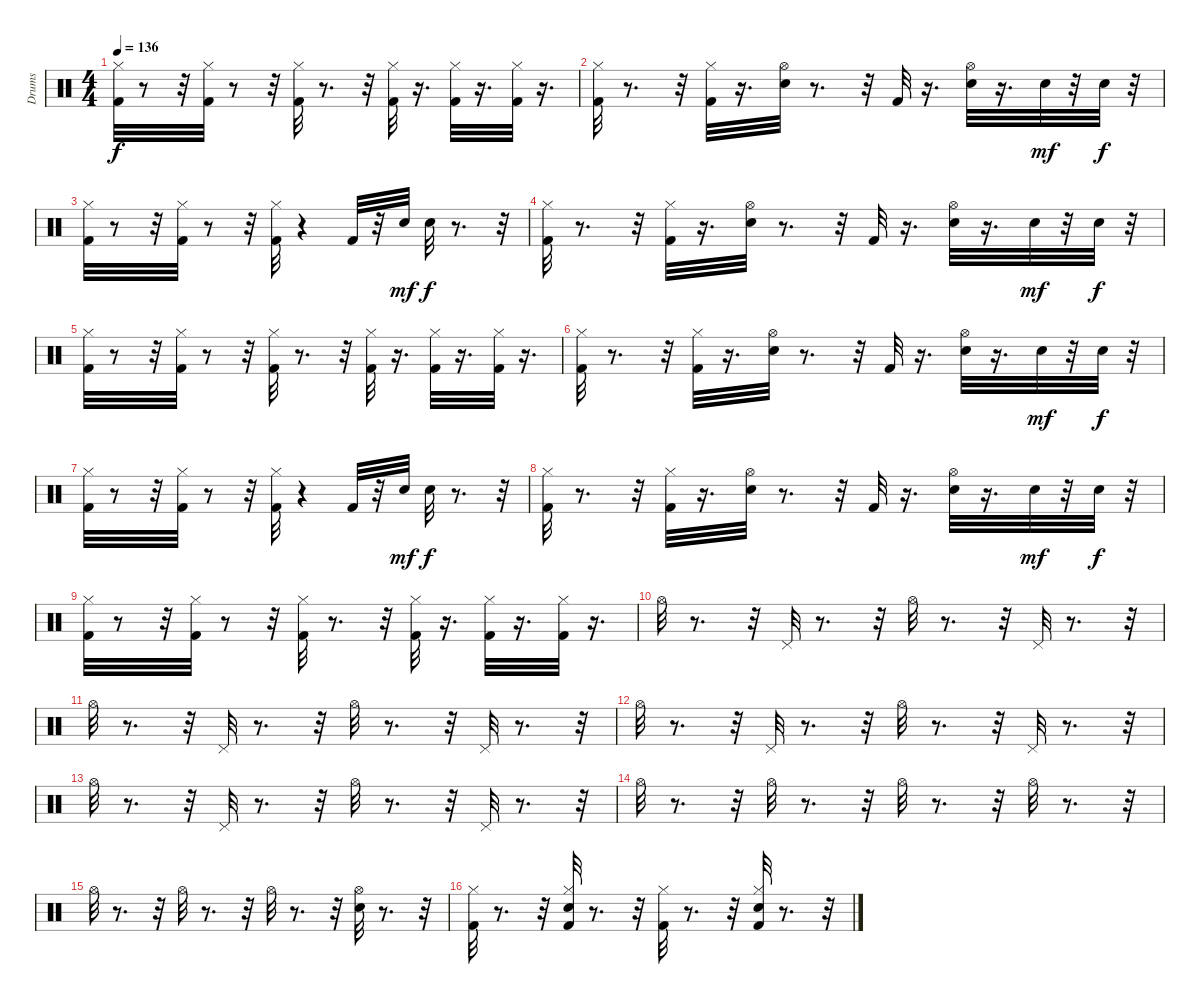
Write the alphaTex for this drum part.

\track ("Drums" "Drums") {instrument percussion}
\staff {score}
\articulation defaults
\ts (4 4)
\tempo 136
\clef neutral
\ks c
("Kick (hit) 2" "Hi-Hat (closed)").32{dy f} r.8 r.32 ("Kick (hit) 2" "Hi-Hat (closed)").32 r.8 r.32 ("Kick (hit) 2" "Hi-Hat (closed)").32 r.8{d} r.32 ("Kick (hit) 2" "Hi-Hat (closed)").32 r.16{d} ("Kick (hit) 2" "Hi-Hat (closed)").32 r.16{d} ("Kick (hit) 2" "Hi-Hat (closed)").32 r.16{d} |
("Kick (hit) 2" "Hi-Hat (closed)").32 r.8{d} r.32 ("Kick (hit) 2" "Hi-Hat (closed)").32 r.16{d} ("Snare (hit) 2" "Hi-Hat (open)").32 r.8{d} r.32 "Kick (hit) 2".32 r.16{d} ("Snare (hit) 2" "Hi-Hat (open)").32 r.16{d} "Snare (hit) 2".32{dy mf} r.32 "Snare (hit) 2".32{dy f} r.32 |
("Kick (hit) 2" "Hi-Hat (closed)").32 r.8 r.32 ("Kick (hit) 2" "Hi-Hat (closed)").32 r.8 r.32 ("Kick (hit) 2" "Hi-Hat (closed)").32 r.4 "Kick (hit) 2".32 r.32 "Snare (hit) 2".32{dy mf} "Snare (hit) 2".32{dy f} r.8{d} r.32 |
("Kick (hit) 2" "Hi-Hat (closed)").32 r.8{d} r.32 ("Kick (hit) 2" "Hi-Hat (closed)").32 r.16{d} ("Snare (hit) 2" "Hi-Hat (open)").32 r.8{d} r.32 "Kick (hit) 2".32 r.16{d} ("Snare (hit) 2" "Hi-Hat (open)").32 r.16{d} "Snare (hit) 2".32{dy mf} r.32 "Snare (hit) 2".32{dy f} r.32 |
("Kick (hit) 2" "Hi-Hat (closed)").32 r.8 r.32 ("Kick (hit) 2" "Hi-Hat (closed)").32 r.8 r.32 ("Kick (hit) 2" "Hi-Hat (closed)").32 r.8{d} r.32 ("Kick (hit) 2" "Hi-Hat (closed)").32 r.16{d} ("Kick (hit) 2" "Hi-Hat (closed)").32 r.16{d} ("Kick (hit) 2" "Hi-Hat (closed)").32 r.16{d} |
("Kick (hit) 2" "Hi-Hat (closed)").32 r.8{d} r.32 ("Kick (hit) 2" "Hi-Hat (closed)").32 r.16{d} ("Snare (hit) 2" "Hi-Hat (open)").32 r.8{d} r.32 "Kick (hit) 2".32 r.16{d} ("Snare (hit) 2" "Hi-Hat (open)").32 r.16{d} "Snare (hit) 2".32{dy mf} r.32 "Snare (hit) 2".32{dy f} r.32 |
("Kick (hit) 2" "Hi-Hat (closed)").32 r.8 r.32 ("Kick (hit) 2" "Hi-Hat (closed)").32 r.8 r.32 ("Kick (hit) 2" "Hi-Hat (closed)").32 r.4 "Kick (hit) 2".32 r.32 "Snare (hit) 2".32{dy mf} "Snare (hit) 2".32{dy f} r.8{d} r.32 |
("Kick (hit) 2" "Hi-Hat (closed)").32 r.8{d} r.32 ("Kick (hit) 2" "Hi-Hat (closed)").32 r.16{d} ("Snare (hit) 2" "Hi-Hat (open)").32 r.8{d} r.32 "Kick (hit) 2".32 r.16{d} ("Snare (hit) 2" "Hi-Hat (open)").32 r.16{d} "Snare (hit) 2".32{dy mf} r.32 "Snare (hit) 2".32{dy f} r.32 |
("Kick (hit) 2" "Hi-Hat (closed)").32 r.8 r.32 ("Kick (hit) 2" "Hi-Hat (closed)").32 r.8 r.32 ("Kick (hit) 2" "Hi-Hat (closed)").32 r.8{d} r.32 ("Kick (hit) 2" "Hi-Hat (closed)").32 r.16{d} ("Kick (hit) 2" "Hi-Hat (closed)").32 r.16{d} ("Kick (hit) 2" "Hi-Hat (closed)").32 r.16{d} |
"Hi-Hat (open)".32 r.8{d} r.32 "Pedal Hi-Hat (hit)".32 r.8{d} r.32 "Hi-Hat (open)".32 r.8{d} r.32 "Pedal Hi-Hat (hit)".32 r.8{d} r.32 |
"Hi-Hat (open)".32 r.8{d} r.32 "Pedal Hi-Hat (hit)".32 r.8{d} r.32 "Hi-Hat (open)".32 r.8{d} r.32 "Pedal Hi-Hat (hit)".32 r.8{d} r.32 |
"Hi-Hat (open)".32 r.8{d} r.32 "Pedal Hi-Hat (hit)".32 r.8{d} r.32 "Hi-Hat (open)".32 r.8{d} r.32 "Pedal Hi-Hat (hit)".32 r.8{d} r.32 |
"Hi-Hat (open)".32 r.8{d} r.32 "Pedal Hi-Hat (hit)".32 r.8{d} r.32 "Hi-Hat (open)".32 r.8{d} r.32 "Pedal Hi-Hat (hit)".32 r.8{d} r.32 |
"Hi-Hat (open)".32 r.8{d} r.32 "Hi-Hat (open)".32 r.8{d} r.32 "Hi-Hat (open)".32 r.8{d} r.32 "Hi-Hat (open)".32 r.8{d} r.32 |
"Hi-Hat (open)".32 r.8{d} r.32 "Hi-Hat (open)".32 r.8{d} r.32 "Hi-Hat (open)".32 r.8{d} r.32 ("Snare (hit) 2" "Hi-Hat (open)").32 r.8{d} r.32 |
("Kick (hit) 2" "Hi-Hat (closed)").32 r.8{d} r.32 ("Kick (hit) 2" "Snare (hit) 2" "Hi-Hat (closed)").32 r.8{d} r.32 ("Kick (hit) 2" "Hi-Hat (closed)").32 r.8{d} r.32 ("Kick (hit) 2" "Snare (hit) 2" "Hi-Hat (closed)").32 r.8{d} r.32
